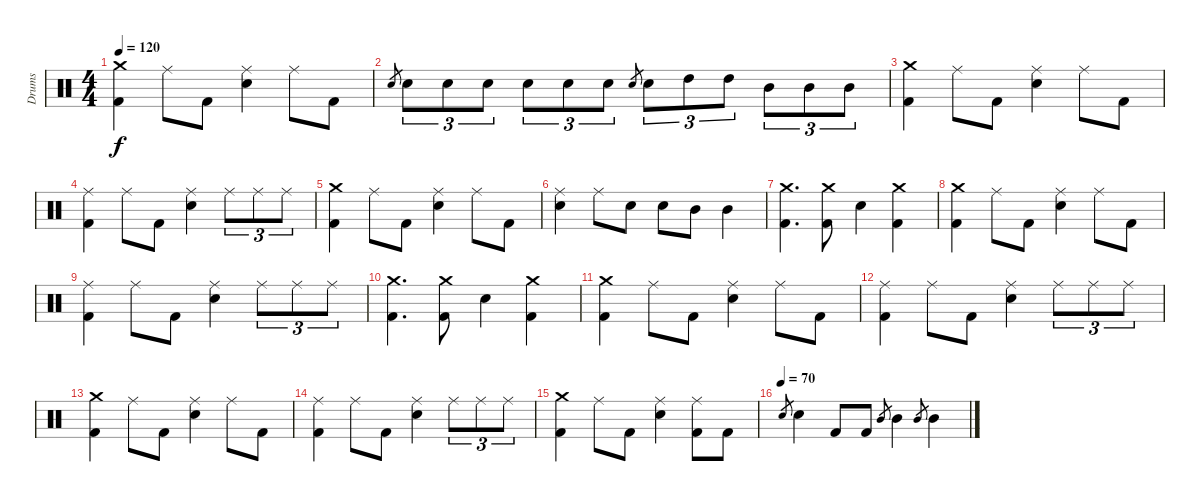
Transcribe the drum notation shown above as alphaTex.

\track ("Drums" "Drums") {instrument percussion}
\staff {score}
\articulation defaults
\ts (4 4)
\tempo 120
\clef neutral
\ks c
("Crash medium (hit)" "Kick (hit) 2").4{dy f} "Ride (middle)".8 "Kick (hit) 2".8 ("Ride (middle)" "Snare (hit) 2").4 "Ride (middle)".8 "Kick (hit) 2".8 |
"Snare (hit) 2".8{gr} "Snare (hit) 2".8{tu (3 2)} "Snare (hit) 2".8{tu (3 2)} "Snare (hit) 2".8{tu (3 2)} "Snare (hit) 2".8{tu (3 2)} "Snare (hit) 2".8{tu (3 2)} "Snare (hit) 2".8{tu (3 2)} "Snare (hit) 2".8{gr} "Snare (hit) 2".8{tu (3 2)} "High Tom (hit)".8{tu (3 2)} "High Tom (hit)".8{tu (3 2)} "Mid Tom (hit)".8{tu (3 2)} "Mid Tom (hit)".8{tu (3 2)} "Mid Tom (hit)".8{tu (3 2)} |
("Crash medium (hit)" "Kick (hit) 2").4 "Ride (middle)".8 "Kick (hit) 2".8 ("Ride (middle)" "Snare (hit) 2").4 "Ride (middle)".8 "Kick (hit) 2".8 |
("Ride (middle)" "Kick (hit) 2").4 "Ride (middle)".8 "Kick (hit) 2".8 ("Ride (middle)" "Snare (hit) 2").4 "Ride (middle)".8{tu (3 2)} "Ride (middle)".8{tu (3 2)} "Ride (middle)".8{tu (3 2)} |
("Crash medium (hit)" "Kick (hit) 2").4 "Ride (middle)".8 "Kick (hit) 2".8 ("Ride (middle)" "Snare (hit) 2").4 "Ride (middle)".8 "Kick (hit) 2".8 |
("Ride (middle)" "Snare (hit) 2").4 "Ride (middle)".8 "Snare (hit) 2".8 "Snare (hit) 2".8 "Mid Tom (hit)".8 "Mid Tom (hit)".4 |
("Crash medium (hit)" "Kick (hit) 2").4{d} ("Crash medium (hit)" "Kick (hit) 2").8 "Snare (hit) 2".4 ("Crash medium (hit)" "Kick (hit) 2").4 |
("Crash medium (hit)" "Kick (hit) 2").4 "Ride (middle)".8 "Kick (hit) 2".8 ("Ride (middle)" "Snare (hit) 2").4 "Ride (middle)".8 "Kick (hit) 2".8 |
("Ride (middle)" "Kick (hit) 2").4 "Ride (middle)".8 "Kick (hit) 2".8 ("Ride (middle)" "Snare (hit) 2").4 "Ride (middle)".8{tu (3 2)} "Ride (middle)".8{tu (3 2)} "Ride (middle)".8{tu (3 2)} |
("Crash medium (hit)" "Kick (hit) 2").4{d} ("Crash medium (hit)" "Kick (hit) 2").8 "Snare (hit) 2".4 ("Crash medium (hit)" "Kick (hit) 2").4 |
("Crash medium (hit)" "Kick (hit) 2").4 "Ride (middle)".8 "Kick (hit) 2".8 ("Ride (middle)" "Snare (hit) 2").4 "Ride (middle)".8 "Kick (hit) 2".8 |
("Ride (middle)" "Kick (hit) 2").4 "Ride (middle)".8 "Kick (hit) 2".8 ("Ride (middle)" "Snare (hit) 2").4 "Ride (middle)".8{tu (3 2)} "Ride (middle)".8{tu (3 2)} "Ride (middle)".8{tu (3 2)} |
("Crash medium (hit)" "Kick (hit) 2").4 "Ride (middle)".8 "Kick (hit) 2".8 ("Ride (middle)" "Snare (hit) 2").4 "Ride (middle)".8 "Kick (hit) 2".8 |
("Ride (middle)" "Kick (hit) 2").4 "Ride (middle)".8 "Kick (hit) 2".8 ("Ride (middle)" "Snare (hit) 2").4 "Ride (middle)".8{tu (3 2)} "Ride (middle)".8{tu (3 2)} "Ride (middle)".8{tu (3 2)} |
("Crash medium (hit)" "Kick (hit) 2").4 "Ride (middle)".8 "Kick (hit) 2".8 ("Ride (middle)" "Snare (hit) 2").4 ("Ride (middle)" "Kick (hit) 2").8 "Kick (hit) 2".8 |
\tempo (70)
"Snare (hit) 2".8{gr} "Snare (hit) 2".4 "Kick (hit) 2".8 "Kick (hit) 2".8 "Mid Tom (hit)".8{gr} "Mid Tom (hit)".4 "Mid Tom (hit)".8{gr} "Mid Tom (hit)".4
